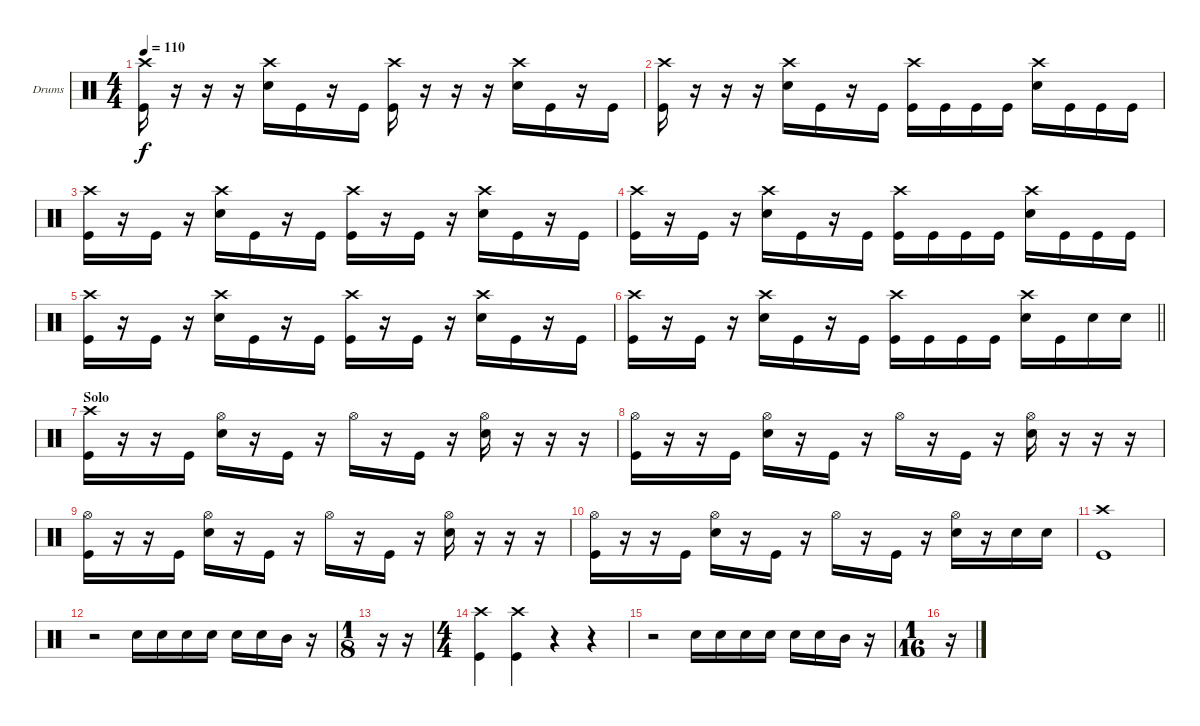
\bracketExtendMode groupsimilarinstruments
\firstSystemTrackNameOrientation horizontal
\otherSystemsTrackNameOrientation horizontal
\track ("Drumkit" "Drums") {instrument percussion}
\staff {score}
\articulation defaults
\ts (4 4)
\tempo 110
\clef neutral
\ks c
("Crash high (hit)" "Kick (hit)").16{dy f} r.16 r.16 r.16 ("Crash high (hit)" "Snare (hit) 2").16 "Kick (hit)".16 r.16 "Kick (hit)".16 ("Crash high (hit)" "Kick (hit)").16 r.16 r.16 r.16 ("Crash high (hit)" "Snare (hit) 2").16 "Kick (hit)".16 r.16 "Kick (hit)".16 |
("Crash high (hit)" "Kick (hit)").16 r.16 r.16 r.16 ("Crash high (hit)" "Snare (hit) 2").16 "Kick (hit)".16 r.16 "Kick (hit)".16 ("Crash high (hit)" "Kick (hit)").16 "Kick (hit)".16 "Kick (hit)".16 "Kick (hit)".16 ("Crash high (hit)" "Snare (hit) 2").16 "Kick (hit)".16 "Kick (hit)".16 "Kick (hit)".16 |
("Crash high (hit)" "Kick (hit)").16 r.16 "Kick (hit)".16 r.16 ("Crash high (hit)" "Snare (hit) 2").16 "Kick (hit)".16 r.16 "Kick (hit)".16 ("Crash high (hit)" "Kick (hit)").16 r.16 "Kick (hit)".16 r.16 ("Crash high (hit)" "Snare (hit) 2").16 "Kick (hit)".16 r.16 "Kick (hit)".16 |
("Crash high (hit)" "Kick (hit)").16 r.16 "Kick (hit)".16 r.16 ("Crash high (hit)" "Snare (hit) 2").16 "Kick (hit)".16 r.16 "Kick (hit)".16 ("Crash high (hit)" "Kick (hit)").16 "Kick (hit)".16 "Kick (hit)".16 "Kick (hit)".16 ("Crash high (hit)" "Snare (hit) 2").16 "Kick (hit)".16 "Kick (hit)".16 "Kick (hit)".16 |
("Crash high (hit)" "Kick (hit)").16 r.16 "Kick (hit)".16 r.16 ("Crash high (hit)" "Snare (hit) 2").16 "Kick (hit)".16 r.16 "Kick (hit)".16 ("Crash high (hit)" "Kick (hit)").16 r.16 "Kick (hit)".16 r.16 ("Crash high (hit)" "Snare (hit) 2").16 "Kick (hit)".16 r.16 "Kick (hit)".16 |
\barLineRight lightlight
("Crash high (hit)" "Kick (hit)").16 r.16 "Kick (hit)".16 r.16 ("Crash high (hit)" "Snare (hit) 2").16 "Kick (hit)".16 r.16 "Kick (hit)".16 ("Crash high (hit)" "Kick (hit)").16 "Kick (hit)".16 "Kick (hit)".16 "Kick (hit)".16 ("Crash high (hit)" "Snare (hit) 2").16 "Kick (hit)".16 "Snare (hit) 2".16 "Snare (hit) 2".16 |
\section ("" "Solo")
("Crash high (hit)" "Kick (hit)").16 r.16 r.16 "Kick (hit)".16 ("Hi-Hat (open)" "Snare (hit) 2").16 r.16 "Kick (hit)".16 r.16 "Hi-Hat (open)".16 r.16 "Kick (hit)".16 r.16 ("Hi-Hat (open)" "Snare (hit) 2").16 r.16 r.16 r.16 |
("Hi-Hat (open)" "Kick (hit)").16 r.16 r.16 "Kick (hit)".16 ("Hi-Hat (open)" "Snare (hit) 2").16 r.16 "Kick (hit)".16 r.16 "Hi-Hat (open)".16 r.16 "Kick (hit)".16 r.16 ("Hi-Hat (open)" "Snare (hit) 2").16 r.16 r.16 r.16 |
("Hi-Hat (open)" "Kick (hit)").16 r.16 r.16 "Kick (hit)".16 ("Hi-Hat (open)" "Snare (hit) 2").16 r.16 "Kick (hit)".16 r.16 "Hi-Hat (open)".16 r.16 "Kick (hit)".16 r.16 ("Hi-Hat (open)" "Snare (hit) 2").16 r.16 r.16 r.16 |
("Hi-Hat (open)" "Kick (hit)").16 r.16 r.16 "Kick (hit)".16 ("Hi-Hat (open)" "Snare (hit) 2").16 r.16 "Kick (hit)".16 r.16 "Hi-Hat (open)".16 r.16 "Kick (hit)".16 r.16 ("Hi-Hat (open)" "Snare (hit) 2").16 r.16 "Snare (hit) 2".16 "Snare (hit) 2".16 |
("Crash high (hit)" "Kick (hit)").1 |
r.2 "Snare (hit) 2".16 "Snare (hit) 2".16 "Snare (hit) 2".16 "Snare (hit) 2".16 "Snare (hit) 2".16 "Snare (hit) 2".16 "Mid Tom (hit)".16 r.16 |
\ts (1 8)
\beaming (8 1)
r.16 r.16 |
\ts (4 4)
\beaming (8 2 2 2 2)
("Crash high (hit)" "Kick (hit)").4 ("Crash high (hit)" "Kick (hit)").4 r.4 r.4 |
r.2 "Snare (hit) 2".16 "Snare (hit) 2".16 "Snare (hit) 2".16 "Snare (hit) 2".16 "Snare (hit) 2".16 "Snare (hit) 2".16 "Mid Tom (hit)".16 r.16 |
\ts (1 16)
\beaming (8)
r.16
